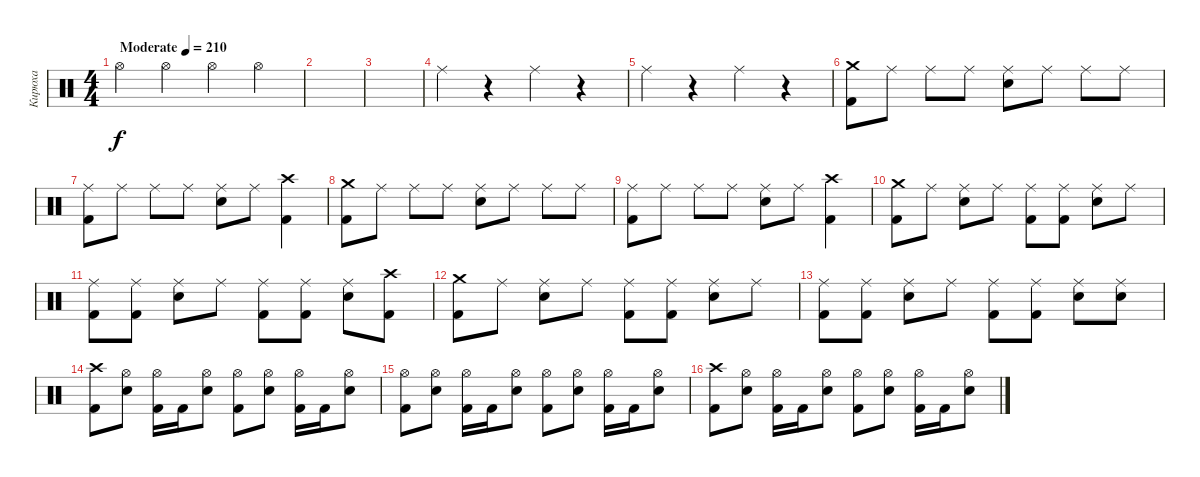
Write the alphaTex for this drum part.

\track ("Кирюха" "Кирюха") {instrument percussion}
\staff {score}
\articulation defaults
\ts (4 4)
\tempo (210 "Moderate")
\clef neutral
\ks c "Hi-Hat (open)".4{dy f} "Hi-Hat (open)".4 "Hi-Hat (open)".4 "Hi-Hat (open)".4
|
|
|
"Ride (middle)".4 r.4 "Ride (middle)".4 r.4 |
"Ride (middle)".4 r.4 "Ride (middle)".4 r.4 |
("Kick (hit) 2" "Crash medium (hit)").8 "Ride (middle)".8 "Ride (middle)".8 "Ride (middle)".8 ("Electric Snare (hit)" "Ride (middle)").8 "Ride (middle)".8 "Ride (middle)".8 "Ride (middle)".8 |
("Kick (hit) 2" "Ride (middle)").8 "Ride (middle)".8 "Ride (middle)".8 "Ride (middle)".8 ("Electric Snare (hit)" "Ride (middle)").8 "Ride (middle)".8 ("Kick (hit) 2" "Crash high (hit)").4 |
("Kick (hit) 2" "Crash medium (hit)").8 "Ride (middle)".8 "Ride (middle)".8 "Ride (middle)".8 ("Electric Snare (hit)" "Ride (middle)").8 "Ride (middle)".8 "Ride (middle)".8 "Ride (middle)".8 |
("Kick (hit) 2" "Ride (middle)").8 "Ride (middle)".8 "Ride (middle)".8 "Ride (middle)".8 ("Electric Snare (hit)" "Ride (middle)").8 "Ride (middle)".8 ("Kick (hit) 2" "Crash high (hit)").4 |
("Kick (hit) 2" "Crash medium (hit)").8 "Ride (middle)".8 ("Electric Snare (hit)" "Ride (middle)").8 "Ride (middle)".8 ("Kick (hit) 2" "Ride (middle)").8 ("Kick (hit) 2" "Ride (middle)").8 ("Electric Snare (hit)" "Ride (middle)").8 "Ride (middle)".8 |
("Kick (hit) 2" "Ride (middle)").8 ("Kick (hit) 2" "Ride (middle)").8 ("Electric Snare (hit)" "Ride (middle)").8 "Ride (middle)".8 ("Kick (hit) 2" "Ride (middle)").8 ("Kick (hit) 2" "Ride (middle)").8 ("Electric Snare (hit)" "Ride (middle)").8 ("Kick (hit) 2" "Crash high (hit)").8 |
("Kick (hit) 2" "Crash medium (hit)").8 "Ride (middle)".8 ("Electric Snare (hit)" "Ride (middle)").8 "Ride (middle)".8 ("Kick (hit) 2" "Ride (middle)").8 ("Kick (hit) 2" "Ride (middle)").8 ("Electric Snare (hit)" "Ride (middle)").8 "Ride (middle)".8 |
("Kick (hit) 2" "Ride (middle)").8 ("Kick (hit) 2" "Ride (middle)").8 ("Electric Snare (hit)" "Ride (middle)").8 "Ride (middle)".8 ("Kick (hit) 2" "Ride (middle)").8 ("Kick (hit) 2" "Ride (middle)").8 ("Electric Snare (hit)" "Ride (middle)").8 ("Electric Snare (hit)" "Ride (middle)").8 |
("Kick (hit) 2" "Crash high (hit)").8 ("Electric Snare (hit)" "Hi-Hat (open)").8 ("Kick (hit) 2" "Hi-Hat (open)").16 "Kick (hit) 2".16 ("Electric Snare (hit)" "Hi-Hat (open)").8 ("Kick (hit) 2" "Hi-Hat (open)").8 ("Electric Snare (hit)" "Hi-Hat (open)").8 ("Kick (hit) 2" "Hi-Hat (open)").16 "Kick (hit) 2".16 ("Electric Snare (hit)" "Hi-Hat (open)").8 |
("Kick (hit) 2" "Hi-Hat (open)").8 ("Electric Snare (hit)" "Hi-Hat (open)").8 ("Kick (hit) 2" "Hi-Hat (open)").16 "Kick (hit) 2".16 ("Electric Snare (hit)" "Hi-Hat (open)").8 ("Kick (hit) 2" "Hi-Hat (open)").8 ("Electric Snare (hit)" "Hi-Hat (open)").8 ("Kick (hit) 2" "Hi-Hat (open)").16 "Kick (hit) 2".16 ("Electric Snare (hit)" "Hi-Hat (open)").8 |
("Kick (hit) 2" "Crash high (hit)").8 ("Electric Snare (hit)" "Hi-Hat (open)").8 ("Kick (hit) 2" "Hi-Hat (open)").16 "Kick (hit) 2".16 ("Electric Snare (hit)" "Hi-Hat (open)").8 ("Kick (hit) 2" "Hi-Hat (open)").8 ("Electric Snare (hit)" "Hi-Hat (open)").8 ("Kick (hit) 2" "Hi-Hat (open)").16 "Kick (hit) 2".16 ("Electric Snare (hit)" "Hi-Hat (open)").8
